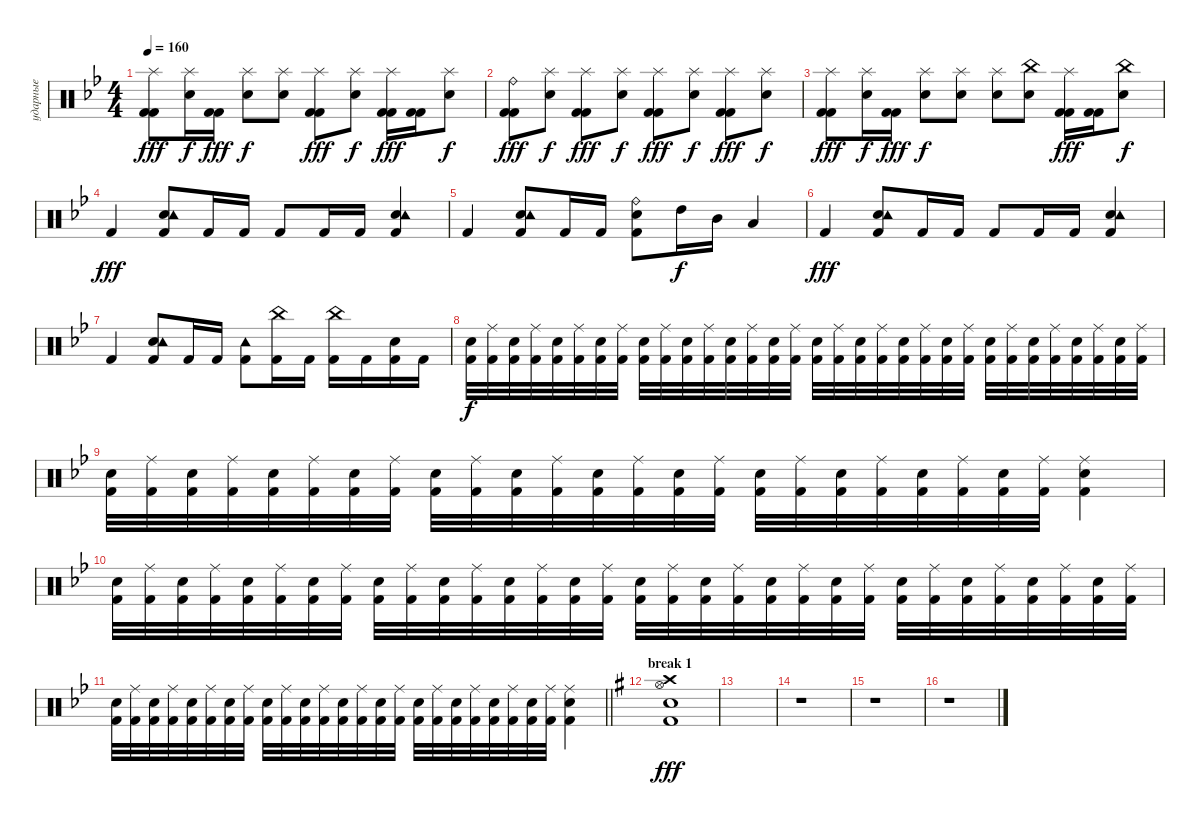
\track ("ударные" "ударные") {instrument percussion}
\staff {score}
\articulation defaults
\ts (4 4)
\tempo 160
\clef neutral
\ks gminor
("Splash (hit)" "Kick (hit) 2" "Kick (hit) 2").8{dy fff} ("Splash (hit)" "Electric Snare (hit)").16{dy f} ("Kick (hit) 2" "Kick (hit) 2").16{dy fff} ("Splash (hit)" "Electric Snare (hit)").8{dy f} ("Splash (hit)" "Electric Snare (hit)").8 ("Splash (hit)" "Kick (hit) 2" "Kick (hit) 2").8{dy fff} ("Splash (hit)" "Electric Snare (hit)").8{dy f} ("Splash (hit)" "Kick (hit) 2" "Kick (hit) 2").16{dy fff} ("Kick (hit) 2" "Kick (hit) 2").16 ("Splash (hit)" "Electric Snare (hit)").8{dy f} |
("Ride (bell)" "Kick (hit) 2" "Kick (hit) 2").8{dy fff} ("Splash (hit)" "Electric Snare (hit)").8{dy f} ("Splash (hit)" "Kick (hit) 2" "Kick (hit) 2").8{dy fff} ("Splash (hit)" "Electric Snare (hit)").8{dy f} ("Splash (hit)" "Kick (hit) 2" "Kick (hit) 2").8{dy fff} ("Splash (hit)" "Electric Snare (hit)").8{dy f} ("Splash (hit)" "Kick (hit) 2" "Kick (hit) 2").8{dy fff} ("Splash (hit)" "Electric Snare (hit)").8{dy f} |
("Splash (hit)" "Kick (hit) 2" "Kick (hit) 2").8{dy fff} ("Splash (hit)" "Electric Snare (hit)").16{dy f} ("Kick (hit) 2" "Kick (hit) 2").16{dy fff} ("Splash (hit)" "Electric Snare (hit)").8{dy f} ("Splash (hit)" "Electric Snare (hit)").8 ("Splash (hit)" "Electric Snare (hit)").8 ("China (hit)" "Electric Snare (hit)").8 ("Splash (hit)" "Kick (hit) 2" "Kick (hit) 2").16{dy fff} ("Kick (hit) 2" "Kick (hit) 2").16 ("China (hit)" "Electric Snare (hit)").8{dy f} |
"Kick (hit) 2".4{dy fff} ("Electric Snare (hit)" "Tambourine (hit)" "Kick (hit) 2").8 "Kick (hit) 2".16 "Kick (hit) 2".16 "Kick (hit) 2".8 "Kick (hit) 2".16 "Kick (hit) 2".16 ("Electric Snare (hit)" "Tambourine (hit)" "Kick (hit) 2").4 |
"Kick (hit) 2".4 ("Electric Snare (hit)" "Tambourine (hit)" "Kick (hit) 2").8 "Kick (hit) 2".16 "Kick (hit) 2".16 ("Ride (bell)" "Electric Snare (hit)" "Kick (hit) 2").8 "High Tom (hit)".16{dy f} "Mid Tom (hit)".16 "Low Tom (hit)".4 |
"Kick (hit) 2".4{dy fff} ("Electric Snare (hit)" "Tambourine (hit)" "Kick (hit) 2").8 "Kick (hit) 2".16 "Kick (hit) 2".16 "Kick (hit) 2".8 "Kick (hit) 2".16 "Kick (hit) 2".16 ("Electric Snare (hit)" "Tambourine (hit)" "Kick (hit) 2").4 |
"Kick (hit) 2".4 ("Electric Snare (hit)" "Tambourine (hit)" "Kick (hit) 2").8 "Kick (hit) 2".16 "Kick (hit) 2".16 ("Tambourine (hit)" "Kick (hit) 2").8 ("China (hit)" "Kick (hit) 2").16 "Kick (hit) 2".16 ("China (hit)" "Kick (hit) 2").16 "Kick (hit) 2".16 ("Electric Snare (hit)" "Kick (hit) 2").16 "Kick (hit) 2".16 |
("Kick (hit) 2" "Electric Snare (hit)").32{dy f} ("Kick (hit) 2" "Ride (middle)").32 ("Kick (hit) 2" "Electric Snare (hit)").32 ("Kick (hit) 2" "Ride (middle)").32 ("Kick (hit) 2" "Electric Snare (hit)").32 ("Kick (hit) 2" "Ride (middle)").32 ("Kick (hit) 2" "Electric Snare (hit)").32 ("Kick (hit) 2" "Ride (middle)").32 ("Kick (hit) 2" "Electric Snare (hit)").32 ("Kick (hit) 2" "Ride (middle)").32 ("Kick (hit) 2" "Electric Snare (hit)").32 ("Kick (hit) 2" "Ride (middle)").32 ("Kick (hit) 2" "Electric Snare (hit)").32 ("Kick (hit) 2" "Ride (middle)").32 ("Kick (hit) 2" "Electric Snare (hit)").32 ("Kick (hit) 2" "Ride (middle)").32 ("Kick (hit) 2" "Electric Snare (hit)").32 ("Kick (hit) 2" "Ride (middle)").32 ("Kick (hit) 2" "Electric Snare (hit)").32 ("Kick (hit) 2" "Ride (middle)").32 ("Kick (hit) 2" "Electric Snare (hit)").32 ("Kick (hit) 2" "Ride (middle)").32 ("Kick (hit) 2" "Electric Snare (hit)").32 ("Kick (hit) 2" "Ride (middle)").32 ("Kick (hit) 2" "Electric Snare (hit)").32 ("Kick (hit) 2" "Ride (middle)").32 ("Kick (hit) 2" "Electric Snare (hit)").32 ("Kick (hit) 2" "Ride (middle)").32 ("Kick (hit) 2" "Electric Snare (hit)").32 ("Kick (hit) 2" "Ride (middle)").32 ("Kick (hit) 2" "Electric Snare (hit)").32 ("Kick (hit) 2" "Ride (middle)").32 |
("Kick (hit) 2" "Electric Snare (hit)").32 ("Kick (hit) 2" "Ride (middle)").32 ("Kick (hit) 2" "Electric Snare (hit)").32 ("Kick (hit) 2" "Ride (middle)").32 ("Kick (hit) 2" "Electric Snare (hit)").32 ("Kick (hit) 2" "Ride (middle)").32 ("Kick (hit) 2" "Electric Snare (hit)").32 ("Kick (hit) 2" "Ride (middle)").32 ("Kick (hit) 2" "Electric Snare (hit)").32 ("Kick (hit) 2" "Ride (middle)").32 ("Kick (hit) 2" "Electric Snare (hit)").32 ("Kick (hit) 2" "Ride (middle)").32 ("Kick (hit) 2" "Electric Snare (hit)").32 ("Kick (hit) 2" "Ride (middle)").32 ("Kick (hit) 2" "Electric Snare (hit)").32 ("Kick (hit) 2" "Ride (middle)").32 ("Kick (hit) 2" "Electric Snare (hit)").32 ("Kick (hit) 2" "Ride (middle)").32 ("Kick (hit) 2" "Electric Snare (hit)").32 ("Kick (hit) 2" "Ride (middle)").32 ("Kick (hit) 2" "Electric Snare (hit)").32 ("Kick (hit) 2" "Ride (middle)").32 ("Kick (hit) 2" "Electric Snare (hit)").32 ("Kick (hit) 2" "Ride (middle)").32 ("Kick (hit) 2" "Electric Snare (hit)" "Ride (middle)").4 |
("Kick (hit) 2" "Electric Snare (hit)").32 ("Kick (hit) 2" "Ride (middle)").32 ("Kick (hit) 2" "Electric Snare (hit)").32 ("Kick (hit) 2" "Ride (middle)").32 ("Kick (hit) 2" "Electric Snare (hit)").32 ("Kick (hit) 2" "Ride (middle)").32 ("Kick (hit) 2" "Electric Snare (hit)").32 ("Kick (hit) 2" "Ride (middle)").32 ("Kick (hit) 2" "Electric Snare (hit)").32 ("Kick (hit) 2" "Ride (middle)").32 ("Kick (hit) 2" "Electric Snare (hit)").32 ("Kick (hit) 2" "Ride (middle)").32 ("Kick (hit) 2" "Electric Snare (hit)").32 ("Kick (hit) 2" "Ride (middle)").32 ("Kick (hit) 2" "Electric Snare (hit)").32 ("Kick (hit) 2" "Ride (middle)").32 ("Kick (hit) 2" "Electric Snare (hit)").32 ("Kick (hit) 2" "Ride (middle)").32 ("Kick (hit) 2" "Electric Snare (hit)").32 ("Kick (hit) 2" "Ride (middle)").32 ("Kick (hit) 2" "Electric Snare (hit)").32 ("Kick (hit) 2" "Ride (middle)").32 ("Kick (hit) 2" "Electric Snare (hit)").32 ("Kick (hit) 2" "Ride (middle)").32 ("Kick (hit) 2" "Electric Snare (hit)").32 ("Kick (hit) 2" "Ride (middle)").32 ("Kick (hit) 2" "Electric Snare (hit)").32 ("Kick (hit) 2" "Ride (middle)").32 ("Kick (hit) 2" "Electric Snare (hit)").32 ("Kick (hit) 2" "Ride (middle)").32 ("Kick (hit) 2" "Electric Snare (hit)").32 ("Kick (hit) 2" "Ride (middle)").32 |
\barLineRight lightlight
("Kick (hit) 2" "Electric Snare (hit)").32 ("Kick (hit) 2" "Ride (middle)").32 ("Kick (hit) 2" "Electric Snare (hit)").32 ("Kick (hit) 2" "Ride (middle)").32 ("Kick (hit) 2" "Electric Snare (hit)").32 ("Kick (hit) 2" "Ride (middle)").32 ("Kick (hit) 2" "Electric Snare (hit)").32 ("Kick (hit) 2" "Ride (middle)").32 ("Kick (hit) 2" "Electric Snare (hit)").32 ("Kick (hit) 2" "Ride (middle)").32 ("Kick (hit) 2" "Electric Snare (hit)").32 ("Kick (hit) 2" "Ride (middle)").32 ("Kick (hit) 2" "Electric Snare (hit)").32 ("Kick (hit) 2" "Ride (middle)").32 ("Kick (hit) 2" "Electric Snare (hit)").32 ("Kick (hit) 2" "Ride (middle)").32 ("Kick (hit) 2" "Electric Snare (hit)").32 ("Kick (hit) 2" "Ride (middle)").32 ("Kick (hit) 2" "Electric Snare (hit)").32 ("Kick (hit) 2" "Ride (middle)").32 ("Kick (hit) 2" "Electric Snare (hit)").32 ("Kick (hit) 2" "Ride (middle)").32 ("Kick (hit) 2" "Electric Snare (hit)").32 ("Kick (hit) 2" "Ride (middle)").32 ("Kick (hit) 2" "Electric Snare (hit)" "Ride (middle)").4 |
\section ("" "break 1")
\ks eminor
("Crash high (hit)" "Electric Snare (hit)" "Hi-Hat (open)" "Kick (hit) 2").1{dy fff} |
|
r.1 |
r.1 |
r.1
